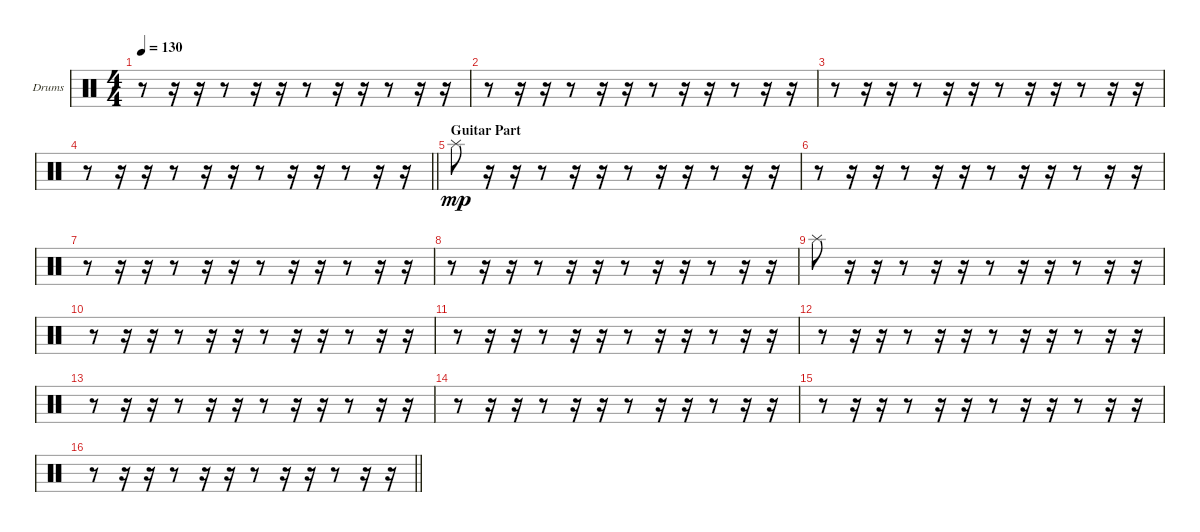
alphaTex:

\bracketExtendMode groupsimilarinstruments
\firstSystemTrackNameOrientation horizontal
\otherSystemsTrackNameOrientation horizontal
\track ("Drumkit" "Drums") {instrument percussion}
\staff {score}
\articulation defaults
\ts (4 4)
\tempo 130
\clef neutral
\ks c
r.8{dy mp} r.16 r.16 r.8 r.16 r.16 r.8 r.16 r.16 r.8 r.16 r.16 |
r.8 r.16 r.16 r.8 r.16 r.16 r.8 r.16 r.16 r.8 r.16 r.16 |
r.8 r.16 r.16 r.8 r.16 r.16 r.8 r.16 r.16 r.8 r.16 r.16 |
\barLineRight lightlight
r.8 r.16 r.16 r.8 r.16 r.16 r.8 r.16 r.16 r.8 r.16 r.16 |
\section ("" "Guitar Part")
"Splash (hit)".8 r.16 r.16 r.8 r.16 r.16 r.8 r.16 r.16 r.8 r.16 r.16 |
r.8 r.16 r.16 r.8 r.16 r.16 r.8 r.16 r.16 r.8 r.16 r.16 |
r.8 r.16 r.16 r.8 r.16 r.16 r.8 r.16 r.16 r.8 r.16 r.16 |
r.8 r.16 r.16 r.8 r.16 r.16 r.8 r.16 r.16 r.8 r.16 r.16 |
"Splash (hit)".8 r.16 r.16 r.8 r.16 r.16 r.8 r.16 r.16 r.8 r.16 r.16 |
r.8 r.16 r.16 r.8 r.16 r.16 r.8 r.16 r.16 r.8 r.16 r.16 |
r.8 r.16 r.16 r.8 r.16 r.16 r.8 r.16 r.16 r.8 r.16 r.16 |
r.8 r.16 r.16 r.8 r.16 r.16 r.8 r.16 r.16 r.8 r.16 r.16 |
r.8 r.16 r.16 r.8 r.16 r.16 r.8 r.16 r.16 r.8 r.16 r.16 |
r.8 r.16 r.16 r.8 r.16 r.16 r.8 r.16 r.16 r.8 r.16 r.16 |
r.8 r.16 r.16 r.8 r.16 r.16 r.8 r.16 r.16 r.8 r.16 r.16 |
\barLineRight lightlight
r.8 r.16 r.16 r.8 r.16 r.16 r.8 r.16 r.16 r.8 r.16 r.16
